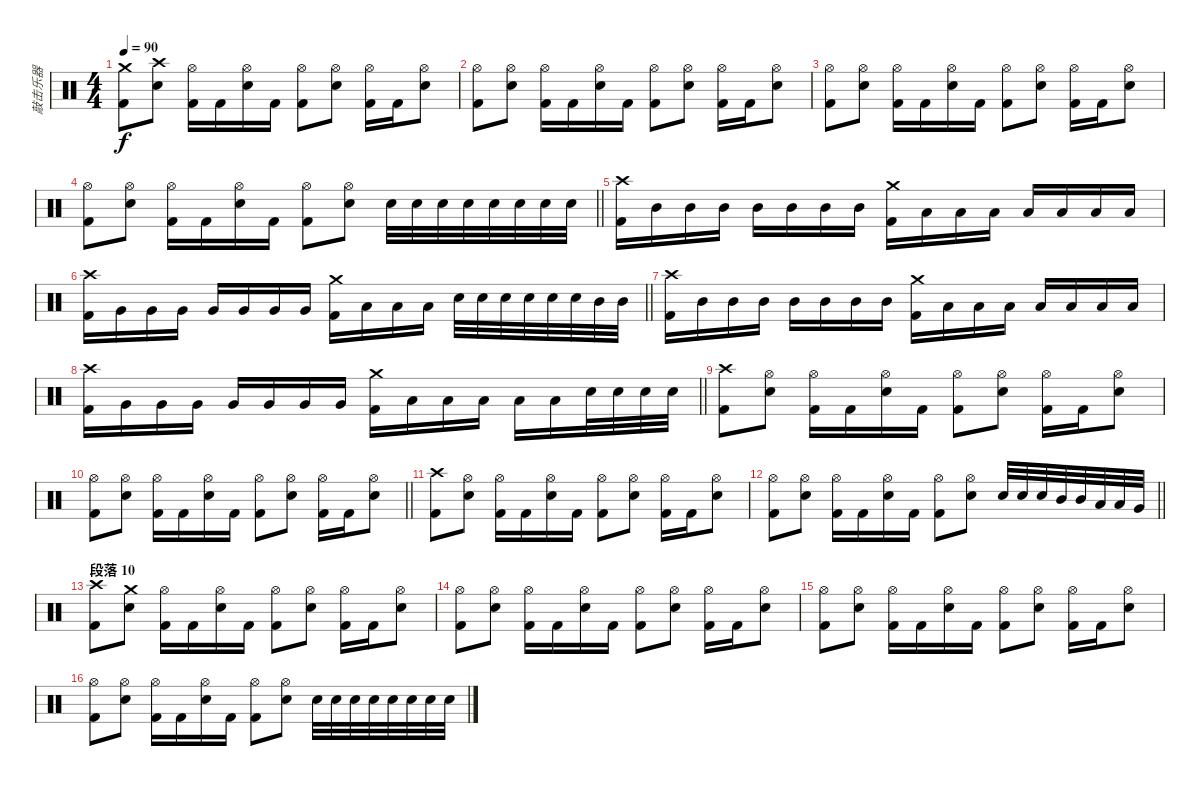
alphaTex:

\track ("敲击乐器" "敲击乐器") {instrument percussion}
\staff {score}
\articulation defaults
\ts (4 4)
\tempo 90
\clef neutral
\ks c
("Crash medium (hit)" "Kick (hit) 2").8{dy f} ("Crash high (hit)" "Snare (hit) 2").8 ("Hi-Hat (open)" "Kick (hit) 2").16 "Kick (hit) 2".16 ("Hi-Hat (open)" "Snare (hit) 2").16 "Kick (hit) 2".16 ("Hi-Hat (open)" "Kick (hit) 2").8 ("Hi-Hat (open)" "Snare (hit) 2").8 ("Hi-Hat (open)" "Kick (hit) 2").16 "Kick (hit) 2".16 ("Hi-Hat (open)" "Snare (hit) 2").8 |
("Hi-Hat (open)" "Kick (hit) 2").8 ("Hi-Hat (open)" "Snare (hit) 2").8 ("Hi-Hat (open)" "Kick (hit) 2").16 "Kick (hit) 2".16 ("Hi-Hat (open)" "Snare (hit) 2").16 "Kick (hit) 2".16 ("Hi-Hat (open)" "Kick (hit) 2").8 ("Hi-Hat (open)" "Snare (hit) 2").8 ("Hi-Hat (open)" "Kick (hit) 2").16 "Kick (hit) 2".16 ("Hi-Hat (open)" "Snare (hit) 2").8 |
("Hi-Hat (open)" "Kick (hit) 2").8 ("Hi-Hat (open)" "Snare (hit) 2").8 ("Hi-Hat (open)" "Kick (hit) 2").16 "Kick (hit) 2".16 ("Hi-Hat (open)" "Snare (hit) 2").16 "Kick (hit) 2".16 ("Hi-Hat (open)" "Kick (hit) 2").8 ("Hi-Hat (open)" "Snare (hit) 2").8 ("Hi-Hat (open)" "Kick (hit) 2").16 "Kick (hit) 2".16 ("Hi-Hat (open)" "Snare (hit) 2").8 |
\barLineRight lightlight
("Hi-Hat (open)" "Kick (hit) 2").8 ("Hi-Hat (open)" "Snare (hit) 2").8 ("Hi-Hat (open)" "Kick (hit) 2").16 "Kick (hit) 2".16 ("Hi-Hat (open)" "Snare (hit) 2").16 "Kick (hit) 2".16 ("Hi-Hat (open)" "Kick (hit) 2").8 ("Hi-Hat (open)" "Snare (hit) 2").8 "Snare (hit) 2".32 "Snare (hit) 2".32 "Snare (hit) 2".32 "Snare (hit) 2".32 "Snare (hit) 2".32 "Snare (hit) 2".32 "Snare (hit) 2".32 "Snare (hit) 2".32 |
("Crash high (hit)" "Kick (hit) 2").16 "Mid Tom (hit)".16 "Mid Tom (hit)".16 "Mid Tom (hit)".16 "Mid Tom (hit)".16 "Mid Tom (hit)".16 "Mid Tom (hit)".16 "Mid Tom (hit)".16 ("Crash medium (hit)" "Kick (hit) 2").16 "Low Tom (hit)".16 "Low Tom (hit)".16 "Low Tom (hit)".16 "Low Tom (hit)".16 "Low Tom (hit)".16 "Low Tom (hit)".16 "Low Tom (hit)".16 |
\barLineRight lightlight
("Crash high (hit)" "Kick (hit) 2").16 "Very Low Tom (hit)".16 "Very Low Tom (hit)".16 "Very Low Tom (hit)".16 "Very Low Tom (hit)".16 "Very Low Tom (hit)".16 "Very Low Tom (hit)".16 "Very Low Tom (hit)".16 ("Crash medium (hit)" "Kick (hit) 2").16 "Low Floor Tom (hit)".16 "Low Floor Tom (hit)".16 "Low Floor Tom (hit)".16 "Snare (hit) 2".32 "Snare (hit) 2".32 "Snare (hit) 2".32 "Snare (hit) 2".32 "Snare (hit) 2".32 "Snare (hit) 2".32 "Mid Tom (hit)".32 "Mid Tom (hit)".32 |
("Crash high (hit)" "Kick (hit) 2").16 "Mid Tom (hit)".16 "Mid Tom (hit)".16 "Mid Tom (hit)".16 "Mid Tom (hit)".16 "Mid Tom (hit)".16 "Mid Tom (hit)".16 "Mid Tom (hit)".16 ("Crash medium (hit)" "Kick (hit) 2").16 "Low Tom (hit)".16 "Low Tom (hit)".16 "Low Tom (hit)".16 "Low Tom (hit)".16 "Low Tom (hit)".16 "Low Tom (hit)".16 "Low Tom (hit)".16 |
\barLineRight lightlight
("Crash high (hit)" "Kick (hit) 2").16 "Very Low Tom (hit)".16 "Very Low Tom (hit)".16 "Very Low Tom (hit)".16 "Very Low Tom (hit)".16 "Very Low Tom (hit)".16 "Very Low Tom (hit)".16 "Very Low Tom (hit)".16 ("Crash medium (hit)" "Kick (hit) 2").16 "Low Floor Tom (hit)".16 "Low Floor Tom (hit)".16 "Low Floor Tom (hit)".16 "Low Floor Tom (hit)".16 "Low Floor Tom (hit)".16 "Snare (hit) 2".32 "Snare (hit) 2".32 "Snare (hit) 2".32 "Snare (hit) 2".32 |
("Crash high (hit)" "Kick (hit) 2").8 ("Hi-Hat (open)" "Snare (hit) 2").8 ("Hi-Hat (open)" "Kick (hit) 2").16 "Kick (hit) 2".16 ("Hi-Hat (open)" "Snare (hit) 2").16 "Kick (hit) 2".16 ("Hi-Hat (open)" "Kick (hit) 2").8 ("Hi-Hat (open)" "Snare (hit) 2").8 ("Hi-Hat (open)" "Kick (hit) 2").16 "Kick (hit) 2".16 ("Hi-Hat (open)" "Snare (hit) 2").8 |
\barLineRight lightlight
("Hi-Hat (open)" "Kick (hit) 2").8 ("Hi-Hat (open)" "Snare (hit) 2").8 ("Hi-Hat (open)" "Kick (hit) 2").16 "Kick (hit) 2".16 ("Hi-Hat (open)" "Snare (hit) 2").16 "Kick (hit) 2".16 ("Hi-Hat (open)" "Kick (hit) 2").8 ("Hi-Hat (open)" "Snare (hit) 2").8 ("Hi-Hat (open)" "Kick (hit) 2").16 "Kick (hit) 2".16 ("Hi-Hat (open)" "Snare (hit) 2").8 |
("Crash high (hit)" "Kick (hit) 2").8 ("Hi-Hat (open)" "Snare (hit) 2").8 ("Hi-Hat (open)" "Kick (hit) 2").16 "Kick (hit) 2".16 ("Hi-Hat (open)" "Snare (hit) 2").16 "Kick (hit) 2".16 ("Hi-Hat (open)" "Kick (hit) 2").8 ("Hi-Hat (open)" "Snare (hit) 2").8 ("Hi-Hat (open)" "Kick (hit) 2").16 "Kick (hit) 2".16 ("Hi-Hat (open)" "Snare (hit) 2").8 |
\barLineRight lightlight
("Hi-Hat (open)" "Kick (hit) 2").8 ("Hi-Hat (open)" "Snare (hit) 2").8 ("Hi-Hat (open)" "Kick (hit) 2").16 "Kick (hit) 2".16 ("Hi-Hat (open)" "Snare (hit) 2").16 "Kick (hit) 2".16 ("Hi-Hat (open)" "Kick (hit) 2").8 ("Hi-Hat (open)" "Snare (hit) 2").8 "Snare (hit) 2".32 "Snare (hit) 2".32 "Snare (hit) 2".32 "Mid Tom (hit)".32 "Mid Tom (hit)".32 "Low Tom (hit)".32 "Low Tom (hit)".32 "Very Low Tom (hit)".32 |
\section ("" "段落 10")
("Crash high (hit)" "Kick (hit) 2").8 ("Crash medium (hit)" "Snare (hit) 2").8 ("Hi-Hat (open)" "Kick (hit) 2").16 "Kick (hit) 2".16 ("Hi-Hat (open)" "Snare (hit) 2").16 "Kick (hit) 2".16 ("Hi-Hat (open)" "Kick (hit) 2").8 ("Hi-Hat (open)" "Snare (hit) 2").8 ("Hi-Hat (open)" "Kick (hit) 2").16 "Kick (hit) 2".16 ("Hi-Hat (open)" "Snare (hit) 2").8 |
("Hi-Hat (open)" "Kick (hit) 2").8 ("Hi-Hat (open)" "Snare (hit) 2").8 ("Hi-Hat (open)" "Kick (hit) 2").16 "Kick (hit) 2".16 ("Hi-Hat (open)" "Snare (hit) 2").16 "Kick (hit) 2".16 ("Hi-Hat (open)" "Kick (hit) 2").8 ("Hi-Hat (open)" "Snare (hit) 2").8 ("Hi-Hat (open)" "Kick (hit) 2").16 "Kick (hit) 2".16 ("Hi-Hat (open)" "Snare (hit) 2").8 |
("Hi-Hat (open)" "Kick (hit) 2").8 ("Hi-Hat (open)" "Snare (hit) 2").8 ("Hi-Hat (open)" "Kick (hit) 2").16 "Kick (hit) 2".16 ("Hi-Hat (open)" "Snare (hit) 2").16 "Kick (hit) 2".16 ("Hi-Hat (open)" "Kick (hit) 2").8 ("Hi-Hat (open)" "Snare (hit) 2").8 ("Hi-Hat (open)" "Kick (hit) 2").16 "Kick (hit) 2".16 ("Hi-Hat (open)" "Snare (hit) 2").8 |
("Hi-Hat (open)" "Kick (hit) 2").8 ("Hi-Hat (open)" "Snare (hit) 2").8 ("Hi-Hat (open)" "Kick (hit) 2").16 "Kick (hit) 2".16 ("Hi-Hat (open)" "Snare (hit) 2").16 "Kick (hit) 2".16 ("Hi-Hat (open)" "Kick (hit) 2").8 ("Hi-Hat (open)" "Snare (hit) 2").8 "Snare (hit) 2".32 "Snare (hit) 2".32 "Snare (hit) 2".32 "Snare (hit) 2".32 "Snare (hit) 2".32 "Snare (hit) 2".32 "Snare (hit) 2".32 "Snare (hit) 2".32
